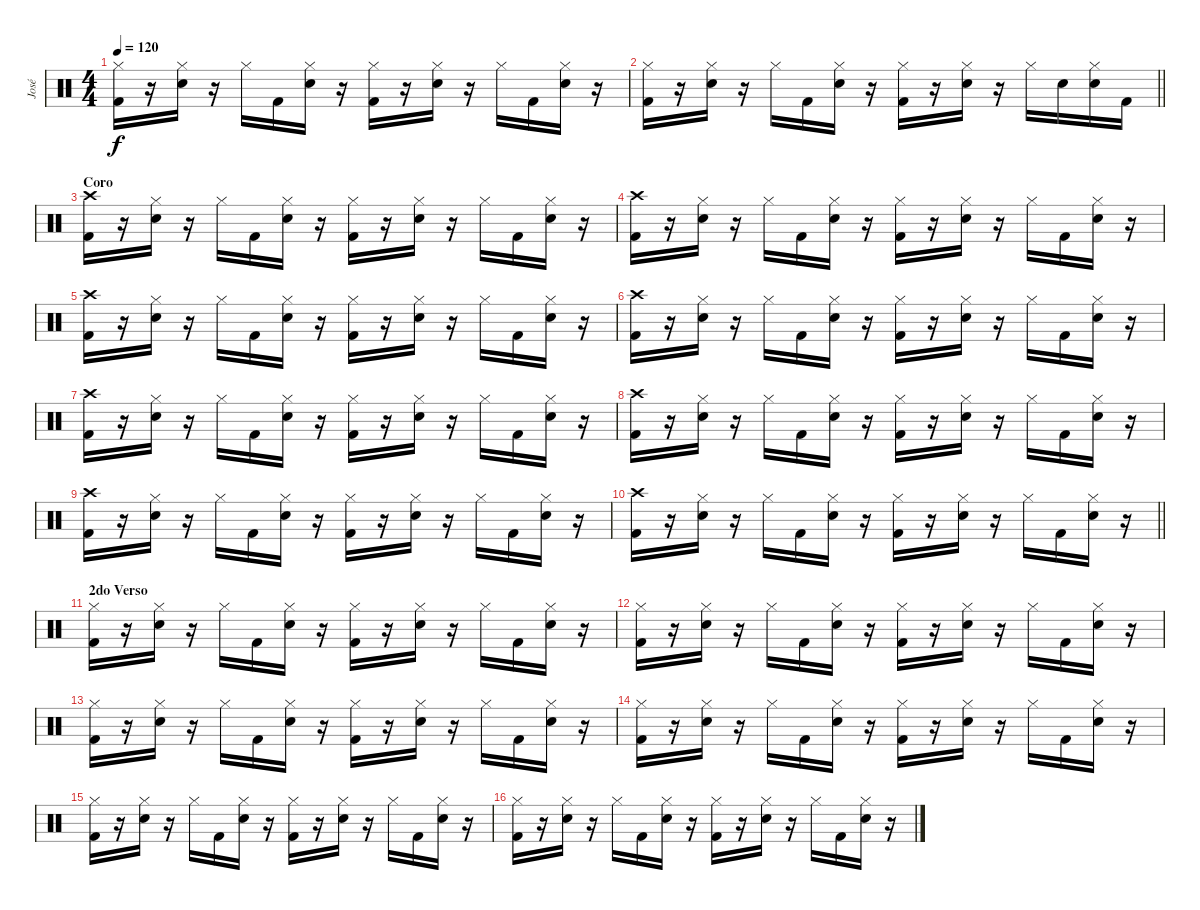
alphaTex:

\track ("José" "José") {instrument percussion}
\staff {score}
\articulation defaults
\ts (4 4)
\tempo 120
\clef neutral
\ks c
("Hi-Hat (closed)" "Kick (hit) 2").16{dy f} r.16 ("Hi-Hat (closed)" "Electric Snare (hit)").16 r.16 "Hi-Hat (closed)".16 "Kick (hit) 2".16 ("Hi-Hat (closed)" "Electric Snare (hit)").16 r.16 ("Hi-Hat (closed)" "Kick (hit) 2").16 r.16 ("Hi-Hat (closed)" "Electric Snare (hit)").16 r.16 "Hi-Hat (closed)".16 "Kick (hit) 2".16 ("Hi-Hat (closed)" "Electric Snare (hit)").16 r.16 |
\barLineRight lightlight
("Hi-Hat (closed)" "Kick (hit) 2").16 r.16 ("Hi-Hat (closed)" "Electric Snare (hit)").16 r.16 "Hi-Hat (closed)".16 "Kick (hit) 2".16 ("Hi-Hat (closed)" "Electric Snare (hit)").16 r.16 ("Hi-Hat (closed)" "Kick (hit) 2").16 r.16 ("Hi-Hat (closed)" "Electric Snare (hit)").16 r.16 "Hi-Hat (closed)".16 "Electric Snare (hit)".16 ("Hi-Hat (closed)" "Electric Snare (hit)").16 "Kick (hit) 2".16 |
\section ("" "Coro")
("Crash high (hit)" "Kick (hit) 2").16 r.16 ("Hi-Hat (closed)" "Electric Snare (hit)").16 r.16 "Hi-Hat (closed)".16 "Kick (hit) 2".16 ("Hi-Hat (closed)" "Electric Snare (hit)").16 r.16 ("Hi-Hat (closed)" "Kick (hit) 2").16 r.16 ("Hi-Hat (closed)" "Electric Snare (hit)").16 r.16 "Hi-Hat (closed)".16 "Kick (hit) 2".16 ("Hi-Hat (closed)" "Electric Snare (hit)").16 r.16 |
("Crash high (hit)" "Kick (hit) 2").16 r.16 ("Hi-Hat (closed)" "Electric Snare (hit)").16 r.16 "Hi-Hat (closed)".16 "Kick (hit) 2".16 ("Hi-Hat (closed)" "Electric Snare (hit)").16 r.16 ("Hi-Hat (closed)" "Kick (hit) 2").16 r.16 ("Hi-Hat (closed)" "Electric Snare (hit)").16 r.16 "Hi-Hat (closed)".16 "Kick (hit) 2".16 ("Hi-Hat (closed)" "Electric Snare (hit)").16 r.16 |
("Crash high (hit)" "Kick (hit) 2").16 r.16 ("Hi-Hat (closed)" "Electric Snare (hit)").16 r.16 "Hi-Hat (closed)".16 "Kick (hit) 2".16 ("Hi-Hat (closed)" "Electric Snare (hit)").16 r.16 ("Hi-Hat (closed)" "Kick (hit) 2").16 r.16 ("Hi-Hat (closed)" "Electric Snare (hit)").16 r.16 "Hi-Hat (closed)".16 "Kick (hit) 2".16 ("Hi-Hat (closed)" "Electric Snare (hit)").16 r.16 |
("Crash high (hit)" "Kick (hit) 2").16 r.16 ("Hi-Hat (closed)" "Electric Snare (hit)").16 r.16 "Hi-Hat (closed)".16 "Kick (hit) 2".16 ("Hi-Hat (closed)" "Electric Snare (hit)").16 r.16 ("Hi-Hat (closed)" "Kick (hit) 2").16 r.16 ("Hi-Hat (closed)" "Electric Snare (hit)").16 r.16 "Hi-Hat (closed)".16 "Kick (hit) 2".16 ("Hi-Hat (closed)" "Electric Snare (hit)").16 r.16 |
("Crash high (hit)" "Kick (hit) 2").16 r.16 ("Hi-Hat (closed)" "Electric Snare (hit)").16 r.16 "Hi-Hat (closed)".16 "Kick (hit) 2".16 ("Hi-Hat (closed)" "Electric Snare (hit)").16 r.16 ("Hi-Hat (closed)" "Kick (hit) 2").16 r.16 ("Hi-Hat (closed)" "Electric Snare (hit)").16 r.16 "Hi-Hat (closed)".16 "Kick (hit) 2".16 ("Hi-Hat (closed)" "Electric Snare (hit)").16 r.16 |
("Crash high (hit)" "Kick (hit) 2").16 r.16 ("Hi-Hat (closed)" "Electric Snare (hit)").16 r.16 "Hi-Hat (closed)".16 "Kick (hit) 2".16 ("Hi-Hat (closed)" "Electric Snare (hit)").16 r.16 ("Hi-Hat (closed)" "Kick (hit) 2").16 r.16 ("Hi-Hat (closed)" "Electric Snare (hit)").16 r.16 "Hi-Hat (closed)".16 "Kick (hit) 2".16 ("Hi-Hat (closed)" "Electric Snare (hit)").16 r.16 |
("Crash high (hit)" "Kick (hit) 2").16 r.16 ("Hi-Hat (closed)" "Electric Snare (hit)").16 r.16 "Hi-Hat (closed)".16 "Kick (hit) 2".16 ("Hi-Hat (closed)" "Electric Snare (hit)").16 r.16 ("Hi-Hat (closed)" "Kick (hit) 2").16 r.16 ("Hi-Hat (closed)" "Electric Snare (hit)").16 r.16 "Hi-Hat (closed)".16 "Kick (hit) 2".16 ("Hi-Hat (closed)" "Electric Snare (hit)").16 r.16 |
\barLineRight lightlight
("Crash high (hit)" "Kick (hit) 2").16 r.16 ("Hi-Hat (closed)" "Electric Snare (hit)").16 r.16 "Hi-Hat (closed)".16 "Kick (hit) 2".16 ("Hi-Hat (closed)" "Electric Snare (hit)").16 r.16 ("Hi-Hat (closed)" "Kick (hit) 2").16 r.16 ("Hi-Hat (closed)" "Electric Snare (hit)").16 r.16 "Hi-Hat (closed)".16 "Kick (hit) 2".16 ("Hi-Hat (closed)" "Electric Snare (hit)").16 r.16 |
\section ("" "2do Verso")
("Hi-Hat (closed)" "Kick (hit) 2").16 r.16 ("Hi-Hat (closed)" "Electric Snare (hit)").16 r.16 "Hi-Hat (closed)".16 "Kick (hit) 2".16 ("Hi-Hat (closed)" "Electric Snare (hit)").16 r.16 ("Hi-Hat (closed)" "Kick (hit) 2").16 r.16 ("Hi-Hat (closed)" "Electric Snare (hit)").16 r.16 "Hi-Hat (closed)".16 "Kick (hit) 2".16 ("Hi-Hat (closed)" "Electric Snare (hit)").16 r.16 |
("Hi-Hat (closed)" "Kick (hit) 2").16 r.16 ("Hi-Hat (closed)" "Electric Snare (hit)").16 r.16 "Hi-Hat (closed)".16 "Kick (hit) 2".16 ("Hi-Hat (closed)" "Electric Snare (hit)").16 r.16 ("Hi-Hat (closed)" "Kick (hit) 2").16 r.16 ("Hi-Hat (closed)" "Electric Snare (hit)").16 r.16 "Hi-Hat (closed)".16 "Kick (hit) 2".16 ("Hi-Hat (closed)" "Electric Snare (hit)").16 r.16 |
("Hi-Hat (closed)" "Kick (hit) 2").16 r.16 ("Hi-Hat (closed)" "Electric Snare (hit)").16 r.16 "Hi-Hat (closed)".16 "Kick (hit) 2".16 ("Hi-Hat (closed)" "Electric Snare (hit)").16 r.16 ("Hi-Hat (closed)" "Kick (hit) 2").16 r.16 ("Hi-Hat (closed)" "Electric Snare (hit)").16 r.16 "Hi-Hat (closed)".16 "Kick (hit) 2".16 ("Hi-Hat (closed)" "Electric Snare (hit)").16 r.16 |
("Hi-Hat (closed)" "Kick (hit) 2").16 r.16 ("Hi-Hat (closed)" "Electric Snare (hit)").16 r.16 "Hi-Hat (closed)".16 "Kick (hit) 2".16 ("Hi-Hat (closed)" "Electric Snare (hit)").16 r.16 ("Hi-Hat (closed)" "Kick (hit) 2").16 r.16 ("Hi-Hat (closed)" "Electric Snare (hit)").16 r.16 "Hi-Hat (closed)".16 "Kick (hit) 2".16 ("Hi-Hat (closed)" "Electric Snare (hit)").16 r.16 |
("Hi-Hat (closed)" "Kick (hit) 2").16 r.16 ("Hi-Hat (closed)" "Electric Snare (hit)").16 r.16 "Hi-Hat (closed)".16 "Kick (hit) 2".16 ("Hi-Hat (closed)" "Electric Snare (hit)").16 r.16 ("Hi-Hat (closed)" "Kick (hit) 2").16 r.16 ("Hi-Hat (closed)" "Electric Snare (hit)").16 r.16 "Hi-Hat (closed)".16 "Kick (hit) 2".16 ("Hi-Hat (closed)" "Electric Snare (hit)").16 r.16 |
("Hi-Hat (closed)" "Kick (hit) 2").16 r.16 ("Hi-Hat (closed)" "Electric Snare (hit)").16 r.16 "Hi-Hat (closed)".16 "Kick (hit) 2".16 ("Hi-Hat (closed)" "Electric Snare (hit)").16 r.16 ("Hi-Hat (closed)" "Kick (hit) 2").16 r.16 ("Hi-Hat (closed)" "Electric Snare (hit)").16 r.16 "Hi-Hat (closed)".16 "Kick (hit) 2".16 ("Hi-Hat (closed)" "Electric Snare (hit)").16 r.16
